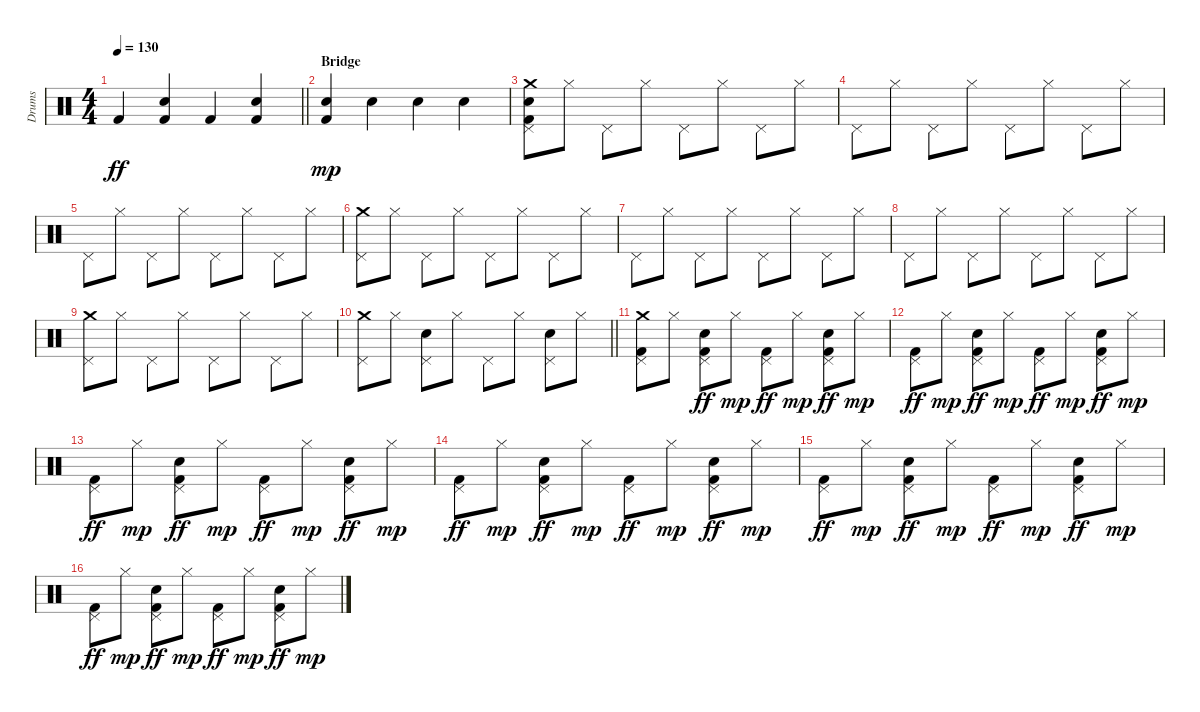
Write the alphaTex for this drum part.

\track ("Drums" "Drums") {instrument percussion}
\staff {score}
\articulation defaults
\ts (4 4)
\tempo 130
\clef neutral
\barLineRight lightlight
\ks c "Kick (hit) 2".4{dy ff}
("Hand Clap (hit)" "Kick (hit) 2").4 "Kick (hit) 2".4 ("Hand Clap (hit)" "Kick (hit) 2").4 |
\section ("" "Bridge")
("Kick (hit) 2" "Hand Clap (hit)").4{dy mp} "Hand Clap (hit)".4 "Hand Clap (hit)".4 "Hand Clap (hit)".4 |
("Kick (hit) 2" "Hand Clap (hit)" "Pedal Hi-Hat (hit)" "Crash medium (hit)").8 "Hi-Hat (closed)".8 "Pedal Hi-Hat (hit)".8 "Hi-Hat (closed)".8 "Pedal Hi-Hat (hit)".8 "Hi-Hat (closed)".8 "Pedal Hi-Hat (hit)".8 "Hi-Hat (closed)".8 |
"Pedal Hi-Hat (hit)".8 "Hi-Hat (closed)".8 "Pedal Hi-Hat (hit)".8 "Hi-Hat (closed)".8 "Pedal Hi-Hat (hit)".8 "Hi-Hat (closed)".8 "Pedal Hi-Hat (hit)".8 "Hi-Hat (closed)".8 |
"Pedal Hi-Hat (hit)".8 "Hi-Hat (closed)".8 "Pedal Hi-Hat (hit)".8 "Hi-Hat (closed)".8 "Pedal Hi-Hat (hit)".8 "Hi-Hat (closed)".8 "Pedal Hi-Hat (hit)".8 "Hi-Hat (closed)".8 |
("Crash medium (hit)" "Pedal Hi-Hat (hit)").8 "Hi-Hat (closed)".8 "Pedal Hi-Hat (hit)".8 "Hi-Hat (closed)".8 "Pedal Hi-Hat (hit)".8 "Hi-Hat (closed)".8 "Pedal Hi-Hat (hit)".8 "Hi-Hat (closed)".8 |
"Pedal Hi-Hat (hit)".8 "Hi-Hat (closed)".8 "Pedal Hi-Hat (hit)".8 "Hi-Hat (closed)".8 "Pedal Hi-Hat (hit)".8 "Hi-Hat (closed)".8 "Pedal Hi-Hat (hit)".8 "Hi-Hat (closed)".8 |
"Pedal Hi-Hat (hit)".8 "Hi-Hat (closed)".8 "Pedal Hi-Hat (hit)".8 "Hi-Hat (closed)".8 "Pedal Hi-Hat (hit)".8 "Hi-Hat (closed)".8 "Pedal Hi-Hat (hit)".8 "Hi-Hat (closed)".8 |
("Crash medium (hit)" "Pedal Hi-Hat (hit)").8 "Hi-Hat (closed)".8 "Pedal Hi-Hat (hit)".8 "Hi-Hat (closed)".8 "Pedal Hi-Hat (hit)".8 "Hi-Hat (closed)".8 "Pedal Hi-Hat (hit)".8 "Hi-Hat (closed)".8 |
\barLineRight lightlight
("Pedal Hi-Hat (hit)" "Crash medium (hit)").8 "Hi-Hat (closed)".8 ("Hand Clap (hit)" "Pedal Hi-Hat (hit)").8 "Hi-Hat (closed)".8 "Pedal Hi-Hat (hit)".8 "Hi-Hat (closed)".8 ("Hand Clap (hit)" "Pedal Hi-Hat (hit)").8 "Hi-Hat (closed)".8 |
("Pedal Hi-Hat (hit)" "Kick (hit) 2" "Crash medium (hit)").8 "Hi-Hat (closed)".8 ("Hand Clap (hit)" "Pedal Hi-Hat (hit)" "Kick (hit) 2").8{dy ff} "Hi-Hat (closed)".8{dy mp} ("Pedal Hi-Hat (hit)" "Kick (hit) 2").8{dy ff} "Hi-Hat (closed)".8{dy mp} ("Hand Clap (hit)" "Pedal Hi-Hat (hit)" "Kick (hit) 2").8{dy ff} "Hi-Hat (closed)".8{dy mp} |
("Pedal Hi-Hat (hit)" "Kick (hit) 2").8{dy ff} "Hi-Hat (closed)".8{dy mp} ("Hand Clap (hit)" "Pedal Hi-Hat (hit)" "Kick (hit) 2").8{dy ff} "Hi-Hat (closed)".8{dy mp} ("Pedal Hi-Hat (hit)" "Kick (hit) 2").8{dy ff} "Hi-Hat (closed)".8{dy mp} ("Hand Clap (hit)" "Pedal Hi-Hat (hit)" "Kick (hit) 2").8{dy ff} "Hi-Hat (closed)".8{dy mp} |
("Pedal Hi-Hat (hit)" "Kick (hit) 2").8{dy ff} "Hi-Hat (closed)".8{dy mp} ("Hand Clap (hit)" "Pedal Hi-Hat (hit)" "Kick (hit) 2").8{dy ff} "Hi-Hat (closed)".8{dy mp} ("Pedal Hi-Hat (hit)" "Kick (hit) 2").8{dy ff} "Hi-Hat (closed)".8{dy mp} ("Hand Clap (hit)" "Pedal Hi-Hat (hit)" "Kick (hit) 2").8{dy ff} "Hi-Hat (closed)".8{dy mp} |
("Pedal Hi-Hat (hit)" "Kick (hit) 2").8{dy ff} "Hi-Hat (closed)".8{dy mp} ("Hand Clap (hit)" "Pedal Hi-Hat (hit)" "Kick (hit) 2").8{dy ff} "Hi-Hat (closed)".8{dy mp} ("Pedal Hi-Hat (hit)" "Kick (hit) 2").8{dy ff} "Hi-Hat (closed)".8{dy mp} ("Hand Clap (hit)" "Pedal Hi-Hat (hit)" "Kick (hit) 2").8{dy ff} "Hi-Hat (closed)".8{dy mp} |
("Pedal Hi-Hat (hit)" "Kick (hit) 2").8{dy ff} "Hi-Hat (closed)".8{dy mp} ("Hand Clap (hit)" "Pedal Hi-Hat (hit)" "Kick (hit) 2").8{dy ff} "Hi-Hat (closed)".8{dy mp} ("Pedal Hi-Hat (hit)" "Kick (hit) 2").8{dy ff} "Hi-Hat (closed)".8{dy mp} ("Hand Clap (hit)" "Pedal Hi-Hat (hit)" "Kick (hit) 2").8{dy ff} "Hi-Hat (closed)".8{dy mp} |
("Pedal Hi-Hat (hit)" "Kick (hit) 2").8{dy ff} "Hi-Hat (closed)".8{dy mp} ("Hand Clap (hit)" "Pedal Hi-Hat (hit)" "Kick (hit) 2").8{dy ff} "Hi-Hat (closed)".8{dy mp} ("Pedal Hi-Hat (hit)" "Kick (hit) 2").8{dy ff} "Hi-Hat (closed)".8{dy mp} ("Hand Clap (hit)" "Pedal Hi-Hat (hit)" "Kick (hit) 2").8{dy ff} "Hi-Hat (closed)".8{dy mp}
